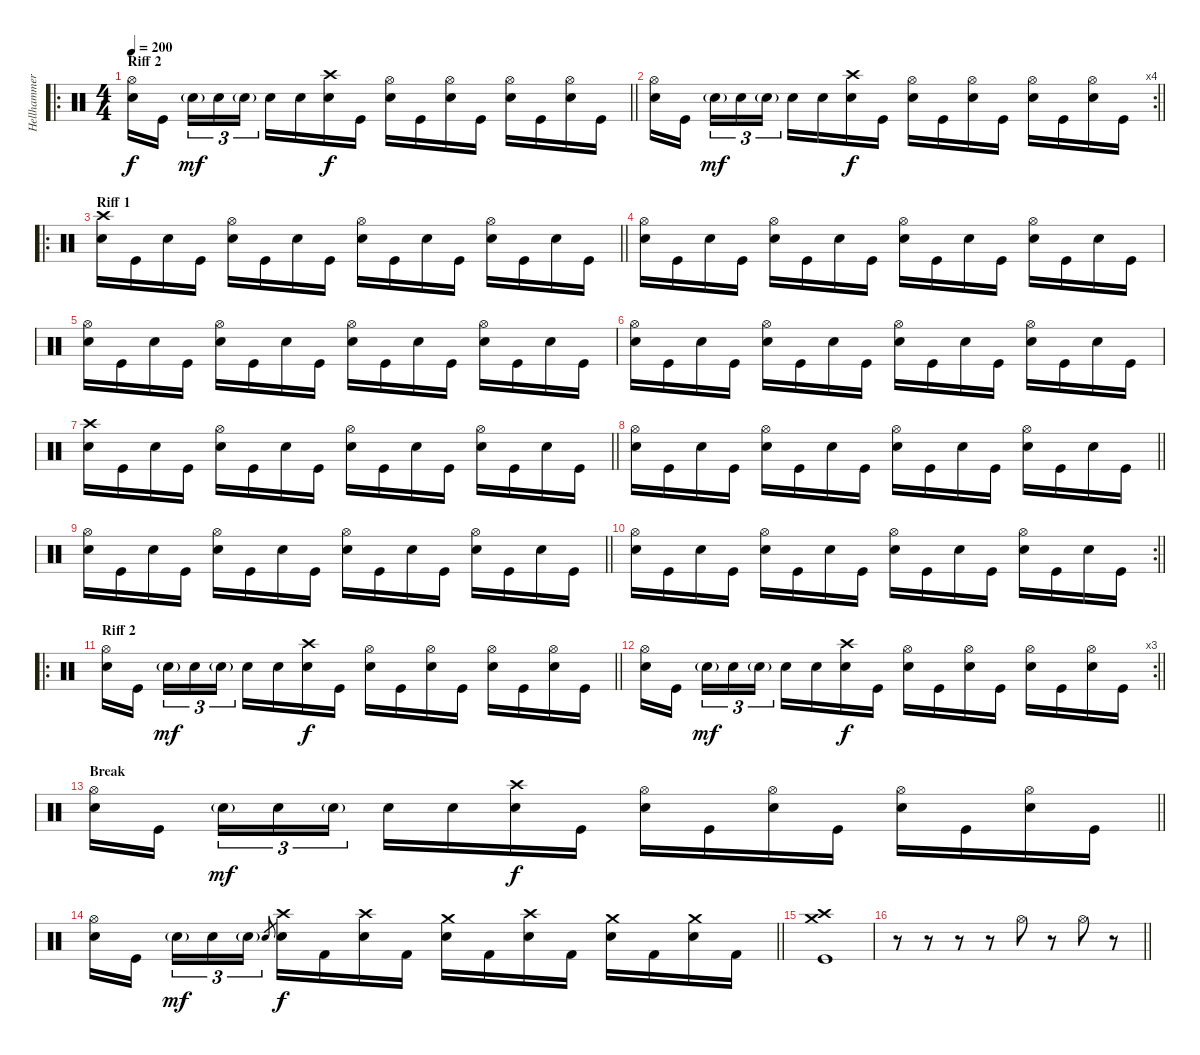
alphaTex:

\track ("Hellhammer" "Hellhammer") {instrument percussion}
\staff {score}
\articulation defaults
\ro
\ts (4 4)
\section ("" "Riff 2")
\tempo 200
\clef neutral
\barLineRight lightlight
\ks c
("Hi-Hat (open)" "Snare (hit) 2").16{dy f} "Kick (hit)".16{beam splitsecondary} "Snare (hit) 2"{g}.16{tu (3 2) dy mf} "Snare (hit) 2".16{tu (3 2)} "Snare (hit) 2"{g}.16{tu (3 2)} "Snare (hit) 2".16 "Snare (hit) 2".16 ("Crash high (hit)" "Snare (hit) 2").16{dy f} "Kick (hit)".16 ("Hi-Hat (open)" "Snare (hit) 2").16 "Kick (hit)".16 ("Hi-Hat (open)" "Snare (hit) 2").16 "Kick (hit)".16 ("Hi-Hat (open)" "Snare (hit) 2").16 "Kick (hit)".16 ("Hi-Hat (open)" "Snare (hit) 2").16 "Kick (hit)".16 |
\rc 4
\barLineRight lightlight
("Hi-Hat (open)" "Snare (hit) 2").16 "Kick (hit)".16{beam splitsecondary} "Snare (hit) 2"{g}.16{tu (3 2) dy mf} "Snare (hit) 2".16{tu (3 2)} "Snare (hit) 2"{g}.16{tu (3 2)} "Snare (hit) 2".16 "Snare (hit) 2".16 ("Crash high (hit)" "Snare (hit) 2").16{dy f} "Kick (hit)".16 ("Hi-Hat (open)" "Snare (hit) 2").16 "Kick (hit)".16 ("Hi-Hat (open)" "Snare (hit) 2").16 "Kick (hit)".16 ("Hi-Hat (open)" "Snare (hit) 2").16 "Kick (hit)".16 ("Hi-Hat (open)" "Snare (hit) 2").16 "Kick (hit)".16 |
\ro
\section ("" "Riff 1")
\barLineRight lightlight
("Crash high (hit)" "Snare (hit) 2").16 "Kick (hit)".16 "Snare (hit) 2".16 "Kick (hit)".16 ("Hi-Hat (open)" "Snare (hit) 2").16 "Kick (hit)".16 "Snare (hit) 2".16 "Kick (hit)".16 ("Hi-Hat (open)" "Snare (hit) 2").16 "Kick (hit)".16 "Snare (hit) 2".16 "Kick (hit)".16 ("Hi-Hat (open)" "Snare (hit) 2").16 "Kick (hit)".16 "Snare (hit) 2".16 "Kick (hit)".16 |
("Hi-Hat (open)" "Snare (hit) 2").16 "Kick (hit)".16 "Snare (hit) 2".16 "Kick (hit)".16 ("Hi-Hat (open)" "Snare (hit) 2").16 "Kick (hit)".16 "Snare (hit) 2".16 "Kick (hit)".16 ("Hi-Hat (open)" "Snare (hit) 2").16 "Kick (hit)".16 "Snare (hit) 2".16 "Kick (hit)".16 ("Hi-Hat (open)" "Snare (hit) 2").16 "Kick (hit)".16 "Snare (hit) 2".16 "Kick (hit)".16 |
("Hi-Hat (open)" "Snare (hit) 2").16 "Kick (hit)".16 "Snare (hit) 2".16 "Kick (hit)".16 ("Hi-Hat (open)" "Snare (hit) 2").16 "Kick (hit)".16 "Snare (hit) 2".16 "Kick (hit)".16 ("Hi-Hat (open)" "Snare (hit) 2").16 "Kick (hit)".16 "Snare (hit) 2".16 "Kick (hit)".16 ("Hi-Hat (open)" "Snare (hit) 2").16 "Kick (hit)".16 "Snare (hit) 2".16 "Kick (hit)".16 |
("Hi-Hat (open)" "Snare (hit) 2").16 "Kick (hit)".16 "Snare (hit) 2".16 "Kick (hit)".16 ("Hi-Hat (open)" "Snare (hit) 2").16 "Kick (hit)".16 "Snare (hit) 2".16 "Kick (hit)".16 ("Hi-Hat (open)" "Snare (hit) 2").16 "Kick (hit)".16 "Snare (hit) 2".16 "Kick (hit)".16 ("Hi-Hat (open)" "Snare (hit) 2").16 "Kick (hit)".16 "Snare (hit) 2".16 "Kick (hit)".16 |
\barLineRight lightlight
("Crash high (hit)" "Snare (hit) 2").16 "Kick (hit)".16 "Snare (hit) 2".16 "Kick (hit)".16 ("Hi-Hat (open)" "Snare (hit) 2").16 "Kick (hit)".16 "Snare (hit) 2".16 "Kick (hit)".16 ("Hi-Hat (open)" "Snare (hit) 2").16 "Kick (hit)".16 "Snare (hit) 2".16 "Kick (hit)".16 ("Hi-Hat (open)" "Snare (hit) 2").16 "Kick (hit)".16 "Snare (hit) 2".16 "Kick (hit)".16 |
\barLineRight lightlight
("Hi-Hat (open)" "Snare (hit) 2").16 "Kick (hit)".16 "Snare (hit) 2".16 "Kick (hit)".16 ("Hi-Hat (open)" "Snare (hit) 2").16 "Kick (hit)".16 "Snare (hit) 2".16 "Kick (hit)".16 ("Hi-Hat (open)" "Snare (hit) 2").16 "Kick (hit)".16 "Snare (hit) 2".16 "Kick (hit)".16 ("Hi-Hat (open)" "Snare (hit) 2").16 "Kick (hit)".16 "Snare (hit) 2".16 "Kick (hit)".16 |
\barLineRight lightlight
("Hi-Hat (open)" "Snare (hit) 2").16 "Kick (hit)".16 "Snare (hit) 2".16 "Kick (hit)".16 ("Hi-Hat (open)" "Snare (hit) 2").16 "Kick (hit)".16 "Snare (hit) 2".16 "Kick (hit)".16 ("Hi-Hat (open)" "Snare (hit) 2").16 "Kick (hit)".16 "Snare (hit) 2".16 "Kick (hit)".16 ("Hi-Hat (open)" "Snare (hit) 2").16 "Kick (hit)".16 "Snare (hit) 2".16 "Kick (hit)".16 |
\rc 2
\barLineRight lightlight
("Hi-Hat (open)" "Snare (hit) 2").16 "Kick (hit)".16 "Snare (hit) 2".16 "Kick (hit)".16 ("Hi-Hat (open)" "Snare (hit) 2").16 "Kick (hit)".16 "Snare (hit) 2".16 "Kick (hit)".16 ("Hi-Hat (open)" "Snare (hit) 2").16 "Kick (hit)".16 "Snare (hit) 2".16 "Kick (hit)".16 ("Hi-Hat (open)" "Snare (hit) 2").16 "Kick (hit)".16 "Snare (hit) 2".16 "Kick (hit)".16 |
\ro
\section ("" "Riff 2")
\barLineRight lightlight
("Hi-Hat (open)" "Snare (hit) 2").16 "Kick (hit)".16{beam splitsecondary} "Snare (hit) 2"{g}.16{tu (3 2) dy mf} "Snare (hit) 2".16{tu (3 2)} "Snare (hit) 2"{g}.16{tu (3 2)} "Snare (hit) 2".16 "Snare (hit) 2".16 ("Crash high (hit)" "Snare (hit) 2").16{dy f} "Kick (hit)".16 ("Hi-Hat (open)" "Snare (hit) 2").16 "Kick (hit)".16 ("Hi-Hat (open)" "Snare (hit) 2").16 "Kick (hit)".16 ("Hi-Hat (open)" "Snare (hit) 2").16 "Kick (hit)".16 ("Hi-Hat (open)" "Snare (hit) 2").16 "Kick (hit)".16 |
\rc 3
\barLineRight lightlight
("Hi-Hat (open)" "Snare (hit) 2").16 "Kick (hit)".16{beam splitsecondary} "Snare (hit) 2"{g}.16{tu (3 2) dy mf} "Snare (hit) 2".16{tu (3 2)} "Snare (hit) 2"{g}.16{tu (3 2)} "Snare (hit) 2".16 "Snare (hit) 2".16 ("Crash high (hit)" "Snare (hit) 2").16{dy f} "Kick (hit)".16 ("Hi-Hat (open)" "Snare (hit) 2").16 "Kick (hit)".16 ("Hi-Hat (open)" "Snare (hit) 2").16 "Kick (hit)".16 ("Hi-Hat (open)" "Snare (hit) 2").16 "Kick (hit)".16 ("Hi-Hat (open)" "Snare (hit) 2").16 "Kick (hit)".16 |
\section ("" "Break")
\barLineRight lightlight
("Hi-Hat (open)" "Snare (hit) 2").16 "Kick (hit)".16{beam splitsecondary} "Snare (hit) 2"{g}.16{tu (3 2) dy mf} "Snare (hit) 2".16{tu (3 2)} "Snare (hit) 2"{g}.16{tu (3 2)} "Snare (hit) 2".16 "Snare (hit) 2".16 ("Crash high (hit)" "Snare (hit) 2").16{dy f} "Kick (hit)".16 ("Hi-Hat (open)" "Snare (hit) 2").16 "Kick (hit)".16 ("Hi-Hat (open)" "Snare (hit) 2").16 "Kick (hit)".16 ("Hi-Hat (open)" "Snare (hit) 2").16 "Kick (hit)".16 ("Hi-Hat (open)" "Snare (hit) 2").16 "Kick (hit)".16 |
\barLineRight lightlight
("Hi-Hat (open)" "Snare (hit) 2").16 "Kick (hit)".16{beam splitsecondary} "Snare (hit) 2"{g}.16{tu (3 2) dy mf} "Snare (hit) 2".16{tu (3 2)} "Snare (hit) 2"{g}.16{tu (3 2)} "Snare (hit) 2".8{gr} ("Crash high (hit)" "Snare (hit) 2").16{dy f} "Kick (hit) 2".16 ("Crash high (hit)" "Snare (hit) 2").16 "Kick (hit) 2".16 ("Crash medium (hit)" "Snare (hit) 2").16 "Kick (hit) 2".16 ("Crash high (hit)" "Snare (hit) 2").16 "Kick (hit) 2".16 ("Crash medium (hit)" "Snare (hit) 2").16 "Kick (hit) 2".16 ("Crash medium (hit)" "Snare (hit) 2").16 "Kick (hit) 2".16 |
("Crash medium (hit)" "Crash high (hit)" "Kick (hit)").1 |
\barLineRight lightlight
r.8 r.8 r.8 r.8 "Hi-Hat (open)".8 r.8 "Hi-Hat (open)".8 r.8
